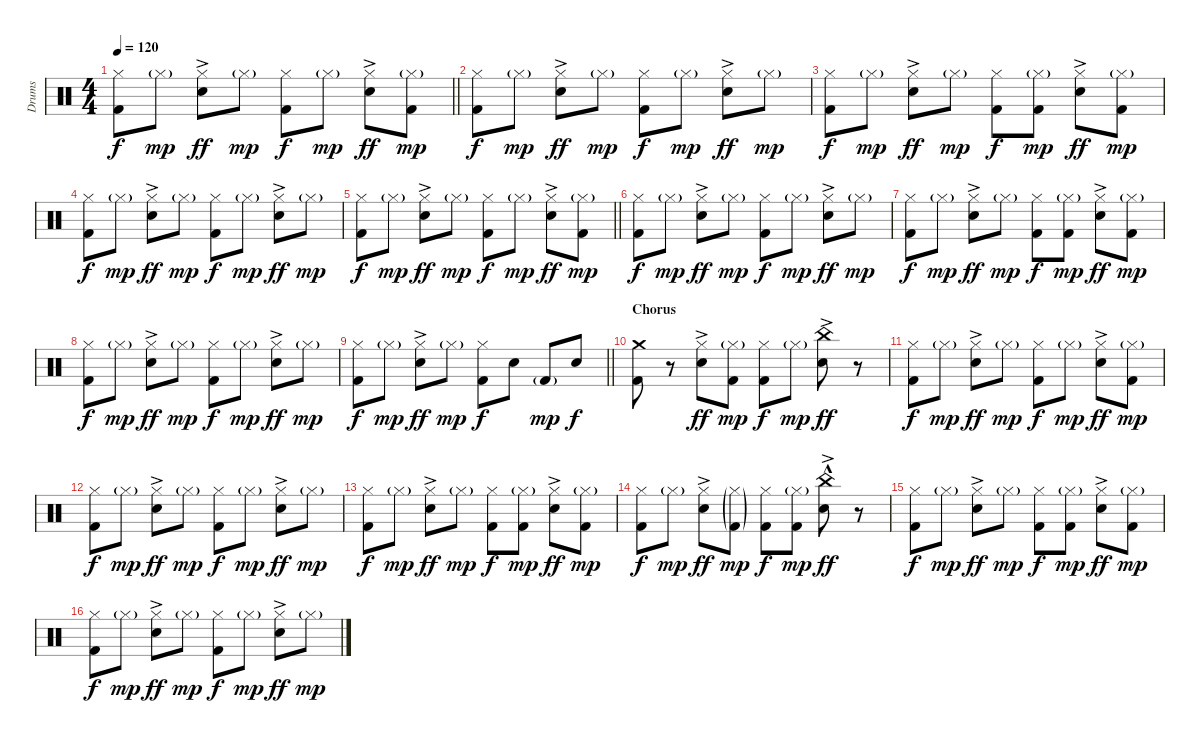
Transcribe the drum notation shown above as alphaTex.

\track ("Drums" "Drums") {instrument percussion}
\staff {score}
\articulation defaults
\ts (4 4)
\tempo 120
\clef neutral
\barLineRight lightlight
\ks c
("Hi-Hat (closed)" "Kick (hit) 2").8{dy f} "Hi-Hat (closed)"{g}.8{dy mp} ("Hi-Hat (closed)" "Snare (hit) 2"{ac}).8{dy ff} "Hi-Hat (closed)"{g}.8{dy mp} ("Hi-Hat (closed)" "Kick (hit) 2").8{dy f} "Hi-Hat (closed)"{g}.8{dy mp} ("Hi-Hat (closed)" "Snare (hit) 2"{ac}).8{dy ff} ("Hi-Hat (closed)"{g} "Kick (hit) 2").8{dy mp} |
("Hi-Hat (closed)" "Kick (hit) 2").8{dy f} "Hi-Hat (closed)"{g}.8{dy mp} ("Hi-Hat (closed)" "Snare (hit) 2"{ac}).8{dy ff} "Hi-Hat (closed)"{g}.8{dy mp} ("Hi-Hat (closed)" "Kick (hit) 2").8{dy f} "Hi-Hat (closed)"{g}.8{dy mp} ("Hi-Hat (closed)" "Snare (hit) 2"{ac}).8{dy ff} "Hi-Hat (closed)"{g}.8{dy mp} |
("Hi-Hat (closed)" "Kick (hit) 2").8{dy f} "Hi-Hat (closed)"{g}.8{dy mp} ("Hi-Hat (closed)" "Snare (hit) 2"{ac}).8{dy ff} "Hi-Hat (closed)"{g}.8{dy mp} ("Hi-Hat (closed)" "Kick (hit) 2").8{dy f} ("Hi-Hat (closed)"{g} "Kick (hit) 2").8{dy mp} ("Hi-Hat (closed)" "Snare (hit) 2"{ac}).8{dy ff} ("Hi-Hat (closed)"{g} "Kick (hit) 2").8{dy mp} |
("Hi-Hat (closed)" "Kick (hit) 2").8{dy f} "Hi-Hat (closed)"{g}.8{dy mp} ("Hi-Hat (closed)" "Snare (hit) 2"{ac}).8{dy ff} "Hi-Hat (closed)"{g}.8{dy mp} ("Hi-Hat (closed)" "Kick (hit) 2").8{dy f} "Hi-Hat (closed)"{g}.8{dy mp} ("Hi-Hat (closed)" "Snare (hit) 2"{ac}).8{dy ff} "Hi-Hat (closed)"{g}.8{dy mp} |
\barLineRight lightlight
("Hi-Hat (closed)" "Kick (hit) 2").8{dy f} "Hi-Hat (closed)"{g}.8{dy mp} ("Hi-Hat (closed)" "Snare (hit) 2"{ac}).8{dy ff} "Hi-Hat (closed)"{g}.8{dy mp} ("Hi-Hat (closed)" "Kick (hit) 2").8{dy f} "Hi-Hat (closed)"{g}.8{dy mp} ("Hi-Hat (closed)" "Snare (hit) 2"{ac}).8{dy ff} ("Hi-Hat (closed)"{g} "Kick (hit) 2").8{dy mp} |
("Hi-Hat (closed)" "Kick (hit) 2").8{dy f} "Hi-Hat (closed)"{g}.8{dy mp} ("Hi-Hat (closed)" "Snare (hit) 2"{ac}).8{dy ff} "Hi-Hat (closed)"{g}.8{dy mp} ("Hi-Hat (closed)" "Kick (hit) 2").8{dy f} "Hi-Hat (closed)"{g}.8{dy mp} ("Hi-Hat (closed)" "Snare (hit) 2"{ac}).8{dy ff} "Hi-Hat (closed)"{g}.8{dy mp} |
("Hi-Hat (closed)" "Kick (hit) 2").8{dy f} "Hi-Hat (closed)"{g}.8{dy mp} ("Hi-Hat (closed)" "Snare (hit) 2"{ac}).8{dy ff} "Hi-Hat (closed)"{g}.8{dy mp} ("Hi-Hat (closed)" "Kick (hit) 2").8{dy f} ("Hi-Hat (closed)"{g} "Kick (hit) 2").8{dy mp} ("Hi-Hat (closed)" "Snare (hit) 2"{ac}).8{dy ff} ("Hi-Hat (closed)"{g} "Kick (hit) 2").8{dy mp} |
("Hi-Hat (closed)" "Kick (hit) 2").8{dy f} "Hi-Hat (closed)"{g}.8{dy mp} ("Hi-Hat (closed)" "Snare (hit) 2"{ac}).8{dy ff} "Hi-Hat (closed)"{g}.8{dy mp} ("Hi-Hat (closed)" "Kick (hit) 2").8{dy f} "Hi-Hat (closed)"{g}.8{dy mp} ("Hi-Hat (closed)" "Snare (hit) 2"{ac}).8{dy ff} "Hi-Hat (closed)"{g}.8{dy mp} |
\barLineRight lightlight
("Hi-Hat (closed)" "Kick (hit) 2").8{dy f} "Hi-Hat (closed)"{g}.8{dy mp} ("Hi-Hat (closed)" "Snare (hit) 2"{ac}).8{dy ff} "Hi-Hat (closed)"{g}.8{dy mp} ("Hi-Hat (closed)" "Kick (hit) 2").8{dy f} "Snare (hit) 2".8 "Kick (hit) 2"{g}.8{dy mp} "Snare (hit) 2".8{dy f} |
\section ("" "Chorus")
("Crash medium (hit)" "Kick (hit) 2").8 r.8 ("Hi-Hat (closed)" "Snare (hit) 2"{ac}).8{dy ff} ("Hi-Hat (closed)"{g} "Kick (hit) 2").8{dy mp} ("Hi-Hat (closed)" "Kick (hit) 2").8{dy f} "Hi-Hat (closed)"{g}.8{dy mp} ("China (hit)" "Snare (hit) 2"{ac}).8{dy ff} r.8 |
("Hi-Hat (closed)" "Kick (hit) 2").8{dy f} "Hi-Hat (closed)"{g}.8{dy mp} ("Hi-Hat (closed)" "Snare (hit) 2"{ac}).8{dy ff} "Hi-Hat (closed)"{g}.8{dy mp} ("Hi-Hat (closed)" "Kick (hit) 2").8{dy f} "Hi-Hat (closed)"{g}.8{dy mp} ("Hi-Hat (closed)" "Snare (hit) 2"{ac}).8{dy ff} ("Hi-Hat (closed)"{g} "Kick (hit) 2").8{dy mp} |
("Hi-Hat (closed)" "Kick (hit) 2").8{dy f} "Hi-Hat (closed)"{g}.8{dy mp} ("Hi-Hat (closed)" "Snare (hit) 2"{ac}).8{dy ff} "Hi-Hat (closed)"{g}.8{dy mp} ("Hi-Hat (closed)" "Kick (hit) 2").8{dy f} "Hi-Hat (closed)"{g}.8{dy mp} ("Hi-Hat (closed)" "Snare (hit) 2"{ac}).8{dy ff} "Hi-Hat (closed)"{g}.8{dy mp} |
("Hi-Hat (closed)" "Kick (hit) 2").8{dy f} "Hi-Hat (closed)"{g}.8{dy mp} ("Hi-Hat (closed)" "Snare (hit) 2"{ac}).8{dy ff} "Hi-Hat (closed)"{g}.8{dy mp} ("Hi-Hat (closed)" "Kick (hit) 2").8{dy f} ("Hi-Hat (closed)"{g} "Kick (hit) 2").8{dy mp} ("Hi-Hat (closed)" "Snare (hit) 2"{ac}).8{dy ff} ("Hi-Hat (closed)"{g} "Kick (hit) 2").8{dy mp} |
("Hi-Hat (closed)" "Kick (hit) 2").8{dy f} "Hi-Hat (closed)"{g}.8{dy mp} ("Hi-Hat (closed)" "Snare (hit) 2"{ac}).8{dy ff} ("Hi-Hat (closed)"{g} "Kick (hit) 2"{g}).8{dy mp} ("Hi-Hat (closed)" "Kick (hit) 2").8{dy f} ("Hi-Hat (closed)"{g} "Kick (hit) 2").8{dy mp} ("China (hit)"{hac} "Snare (hit) 2"{ac}).8{dy ff} r.8 |
("Hi-Hat (closed)" "Kick (hit) 2").8{dy f} "Hi-Hat (closed)"{g}.8{dy mp} ("Hi-Hat (closed)" "Snare (hit) 2"{ac}).8{dy ff} "Hi-Hat (closed)"{g}.8{dy mp} ("Hi-Hat (closed)" "Kick (hit) 2").8{dy f} ("Hi-Hat (closed)"{g} "Kick (hit) 2").8{dy mp} ("Hi-Hat (closed)" "Snare (hit) 2"{ac}).8{dy ff} ("Hi-Hat (closed)"{g} "Kick (hit) 2").8{dy mp} |
("Hi-Hat (closed)" "Kick (hit) 2").8{dy f} "Hi-Hat (closed)"{g}.8{dy mp} ("Hi-Hat (closed)" "Snare (hit) 2"{ac}).8{dy ff} "Hi-Hat (closed)"{g}.8{dy mp} ("Hi-Hat (closed)" "Kick (hit) 2").8{dy f} "Hi-Hat (closed)"{g}.8{dy mp} ("Hi-Hat (closed)" "Snare (hit) 2"{ac}).8{dy ff} "Hi-Hat (closed)"{g}.8{dy mp}
